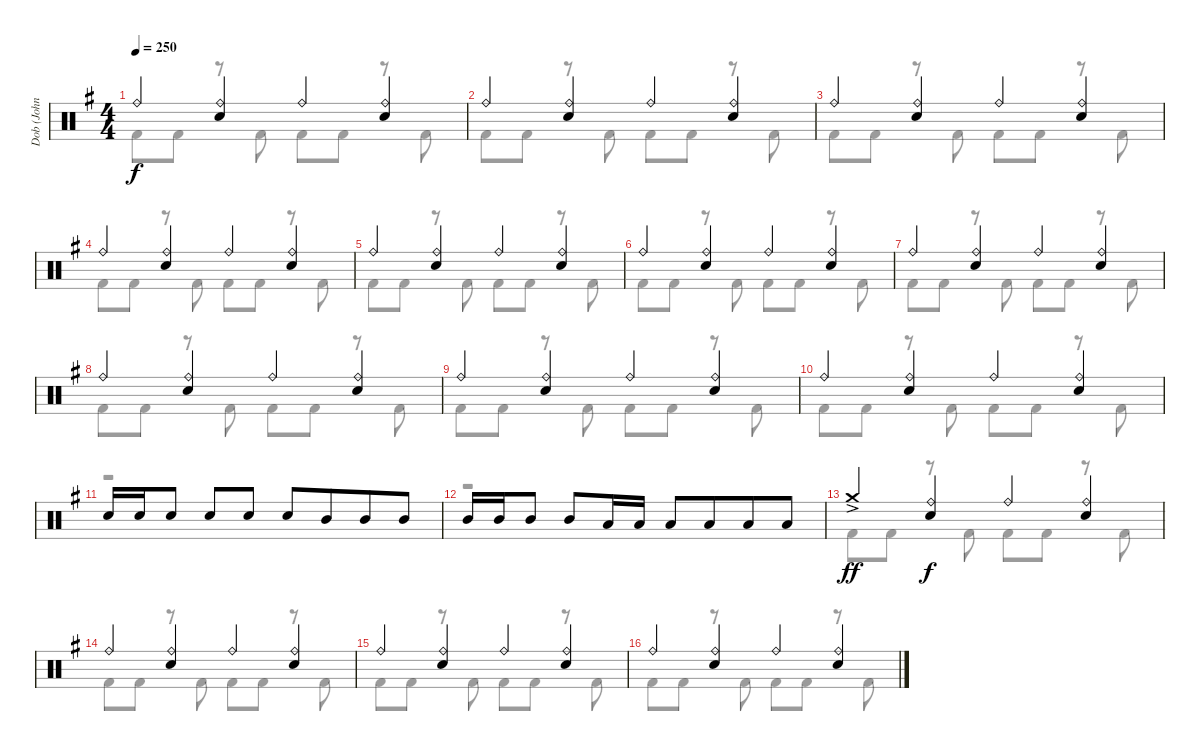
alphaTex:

\track ("Dob (John Macaluso)" "Dob (John ") {instrument percussion}
\staff {score}
\articulation defaults
\voice
\ts (4 4)
\tempo 250
\clef neutral
\ks g "Ride (bell)".4{dy f}
("Ride (bell)" "Electric Snare (hit)").4 "Ride (bell)".4 ("Ride (bell)" "Electric Snare (hit)").4 |
"Ride (bell)".4 ("Ride (bell)" "Electric Snare (hit)").4 "Ride (bell)".4 ("Ride (bell)" "Electric Snare (hit)").4 |
"Ride (bell)".4 ("Ride (bell)" "Electric Snare (hit)").4 "Ride (bell)".4 ("Ride (bell)" "Electric Snare (hit)").4 |
"Ride (bell)".4 ("Ride (bell)" "Electric Snare (hit)").4 "Ride (bell)".4 ("Ride (bell)" "Electric Snare (hit)").4 |
"Ride (bell)".4 ("Ride (bell)" "Electric Snare (hit)").4 "Ride (bell)".4 ("Ride (bell)" "Electric Snare (hit)").4 |
"Ride (bell)".4 ("Ride (bell)" "Electric Snare (hit)").4 "Ride (bell)".4 ("Ride (bell)" "Electric Snare (hit)").4 |
"Ride (bell)".4 ("Ride (bell)" "Electric Snare (hit)").4 "Ride (bell)".4 ("Ride (bell)" "Electric Snare (hit)").4 |
"Ride (bell)".4 ("Ride (bell)" "Electric Snare (hit)").4 "Ride (bell)".4 ("Ride (bell)" "Electric Snare (hit)").4 |
"Ride (bell)".4 ("Ride (bell)" "Electric Snare (hit)").4 "Ride (bell)".4 ("Ride (bell)" "Electric Snare (hit)").4 |
"Ride (bell)".4 ("Ride (bell)" "Electric Snare (hit)").4 "Ride (bell)".4 ("Ride (bell)" "Electric Snare (hit)").4 |
"Electric Snare (hit)".16 "Electric Snare (hit)".16 "Electric Snare (hit)".8 "Electric Snare (hit)".8 "Electric Snare (hit)".8 "Electric Snare (hit)".8 "Mid Tom (hit)".8{beam merge} "Mid Tom (hit)".8 "Mid Tom (hit)".8 |
"Mid Tom (hit)".16 "Mid Tom (hit)".16 "Mid Tom (hit)".8 "Mid Tom (hit)".8 "Low Tom (hit)".16 "Low Tom (hit)".16 "Low Tom (hit)".8 "Low Tom (hit)".8{beam merge} "Low Tom (hit)".8 "Low Tom (hit)".8 |
"Crash medium (hit)"{ac}.4{dy ff} ("Ride (bell)" "Electric Snare (hit)").4{dy f} "Ride (bell)".4 ("Ride (bell)" "Electric Snare (hit)").4 |
"Ride (bell)".4 ("Ride (bell)" "Electric Snare (hit)").4 "Ride (bell)".4 ("Ride (bell)" "Electric Snare (hit)").4 |
"Ride (bell)".4 ("Ride (bell)" "Electric Snare (hit)").4 "Ride (bell)".4 ("Ride (bell)" "Electric Snare (hit)").4 |
"Ride (bell)".4 ("Ride (bell)" "Electric Snare (hit)").4 "Ride (bell)".4 ("Ride (bell)" "Electric Snare (hit)").4
\voice
\clef neutral
\ottava regular
\simile none
\ks g "Kick (hit) 2".8{dy f} "Kick (hit) 2".8
r.8 "Kick (hit) 2".8 "Kick (hit) 2".8 "Kick (hit) 2".8 r.8 "Kick (hit) 2".8 |
"Kick (hit) 2".8 "Kick (hit) 2".8 r.8 "Kick (hit) 2".8 "Kick (hit) 2".8 "Kick (hit) 2".8 r.8 "Kick (hit) 2".8 |
"Kick (hit) 2".8 "Kick (hit) 2".8 r.8 "Kick (hit) 2".8 "Kick (hit) 2".8 "Kick (hit) 2".8 r.8 "Kick (hit) 2".8 |
"Kick (hit) 2".8 "Kick (hit) 2".8 r.8 "Kick (hit) 2".8 "Kick (hit) 2".8 "Kick (hit) 2".8 r.8 "Kick (hit) 2".8 |
"Kick (hit) 2".8 "Kick (hit) 2".8 r.8 "Kick (hit) 2".8 "Kick (hit) 2".8 "Kick (hit) 2".8 r.8 "Kick (hit) 2".8 |
"Kick (hit) 2".8 "Kick (hit) 2".8 r.8 "Kick (hit) 2".8 "Kick (hit) 2".8 "Kick (hit) 2".8 r.8 "Kick (hit) 2".8 |
"Kick (hit) 2".8 "Kick (hit) 2".8 r.8 "Kick (hit) 2".8 "Kick (hit) 2".8 "Kick (hit) 2".8 r.8 "Kick (hit) 2".8 |
"Kick (hit) 2".8 "Kick (hit) 2".8 r.8 "Kick (hit) 2".8 "Kick (hit) 2".8 "Kick (hit) 2".8 r.8 "Kick (hit) 2".8 |
"Kick (hit) 2".8 "Kick (hit) 2".8 r.8 "Kick (hit) 2".8 "Kick (hit) 2".8 "Kick (hit) 2".8 r.8 "Kick (hit) 2".8 |
"Kick (hit) 2".8 "Kick (hit) 2".8 r.8 "Kick (hit) 2".8 "Kick (hit) 2".8 "Kick (hit) 2".8 r.8 "Kick (hit) 2".8 |
r.1 |
r.1 |
"Kick (hit) 2".8 "Kick (hit) 2".8 r.8 "Kick (hit) 2".8 "Kick (hit) 2".8 "Kick (hit) 2".8 r.8 "Kick (hit) 2".8 |
"Kick (hit) 2".8 "Kick (hit) 2".8 r.8 "Kick (hit) 2".8 "Kick (hit) 2".8 "Kick (hit) 2".8 r.8 "Kick (hit) 2".8 |
"Kick (hit) 2".8 "Kick (hit) 2".8 r.8 "Kick (hit) 2".8 "Kick (hit) 2".8 "Kick (hit) 2".8 r.8 "Kick (hit) 2".8 |
"Kick (hit) 2".8 "Kick (hit) 2".8 r.8 "Kick (hit) 2".8 "Kick (hit) 2".8 "Kick (hit) 2".8 r.8 "Kick (hit) 2".8
